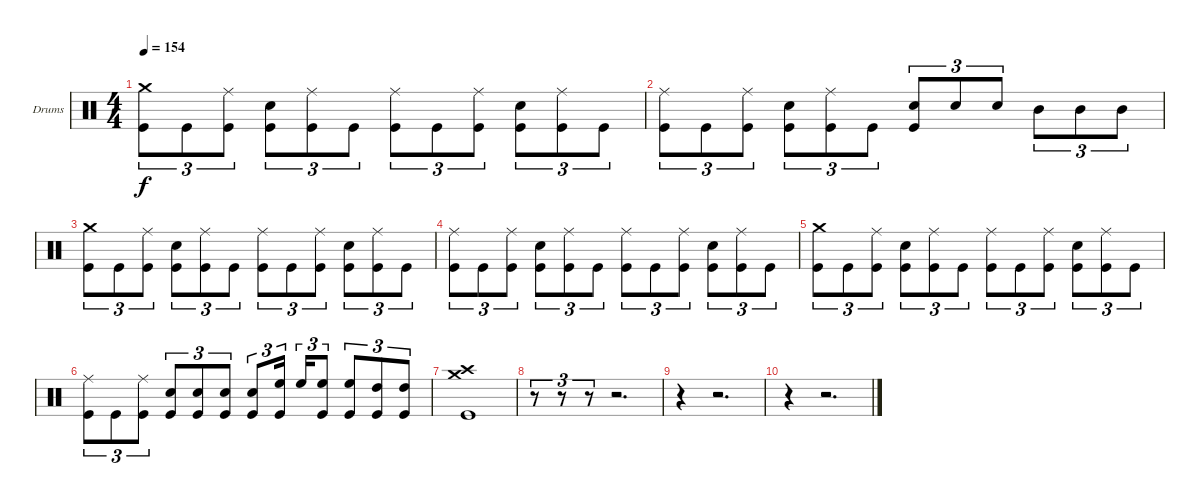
\bracketExtendMode groupsimilarinstruments
\firstSystemTrackNameOrientation horizontal
\otherSystemsTrackNameOrientation horizontal
\track ("Drumkit" "Drums") {instrument percussion}
\staff {score}
\articulation defaults
\ts (4 4)
\tempo 154
\clef neutral
\ks c
("Crash medium (hit)" "Kick (hit)").8{tu (3 2) dy f} "Kick (hit)".8{tu (3 2)} ("Ride (middle)" "Kick (hit)").8{tu (3 2)} ("Snare (hit) 2" "Kick (hit)").8{tu (3 2)} ("Ride (middle)" "Kick (hit)").8{tu (3 2)} "Kick (hit)".8{tu (3 2)} ("Ride (middle)" "Kick (hit)").8{tu (3 2)} "Kick (hit)".8{tu (3 2)} ("Ride (middle)" "Kick (hit)").8{tu (3 2)} ("Snare (hit) 2" "Kick (hit)").8{tu (3 2)} ("Ride (middle)" "Kick (hit)").8{tu (3 2)} "Kick (hit)".8{tu (3 2)} |
("Ride (middle)" "Kick (hit)").8{tu (3 2)} "Kick (hit)".8{tu (3 2)} ("Ride (middle)" "Kick (hit)").8{tu (3 2)} ("Snare (hit) 2" "Kick (hit)").8{tu (3 2)} ("Ride (middle)" "Kick (hit)").8{tu (3 2)} "Kick (hit)".8{tu (3 2)} ("Snare (hit) 2" "Kick (hit)").8{tu (3 2)} "Snare (hit) 2".8{tu (3 2)} "Snare (hit) 2".8{tu (3 2)} "Mid Tom (hit)".8{tu (3 2)} "Mid Tom (hit)".8{tu (3 2)} "Mid Tom (hit)".8{tu (3 2)} |
("Crash medium (hit)" "Kick (hit)").8{tu (3 2)} "Kick (hit)".8{tu (3 2)} ("Ride (middle)" "Kick (hit)").8{tu (3 2)} ("Snare (hit) 2" "Kick (hit)").8{tu (3 2)} ("Ride (middle)" "Kick (hit)").8{tu (3 2)} "Kick (hit)".8{tu (3 2)} ("Ride (middle)" "Kick (hit)").8{tu (3 2)} "Kick (hit)".8{tu (3 2)} ("Ride (middle)" "Kick (hit)").8{tu (3 2)} ("Snare (hit) 2" "Kick (hit)").8{tu (3 2)} ("Ride (middle)" "Kick (hit)").8{tu (3 2)} "Kick (hit)".8{tu (3 2)} |
("Ride (middle)" "Kick (hit)").8{tu (3 2)} "Kick (hit)".8{tu (3 2)} ("Ride (middle)" "Kick (hit)").8{tu (3 2)} ("Snare (hit) 2" "Kick (hit)").8{tu (3 2)} ("Ride (middle)" "Kick (hit)").8{tu (3 2)} "Kick (hit)".8{tu (3 2)} ("Ride (middle)" "Kick (hit)").8{tu (3 2)} "Kick (hit)".8{tu (3 2)} ("Ride (middle)" "Kick (hit)").8{tu (3 2)} ("Snare (hit) 2" "Kick (hit)").8{tu (3 2)} ("Ride (middle)" "Kick (hit)").8{tu (3 2)} "Kick (hit)".8{tu (3 2)} |
("Crash medium (hit)" "Kick (hit)").8{tu (3 2)} "Kick (hit)".8{tu (3 2)} ("Ride (middle)" "Kick (hit)").8{tu (3 2)} ("Snare (hit) 2" "Kick (hit)").8{tu (3 2)} ("Ride (middle)" "Kick (hit)").8{tu (3 2)} "Kick (hit)".8{tu (3 2)} ("Ride (middle)" "Kick (hit)").8{tu (3 2)} "Kick (hit)".8{tu (3 2)} ("Ride (middle)" "Kick (hit)").8{tu (3 2)} ("Snare (hit) 2" "Kick (hit)").8{tu (3 2)} ("Ride (middle)" "Kick (hit)").8{tu (3 2)} "Kick (hit)".8{tu (3 2)} |
("Ride (middle)" "Kick (hit)").8{tu (3 2)} "Kick (hit)".8{tu (3 2)} ("Ride (middle)" "Kick (hit)").8{tu (3 2)} ("Snare (hit) 2" "Kick (hit)").8{tu (3 2)} ("Snare (hit) 2" "Kick (hit)").8{tu (3 2)} ("Snare (hit) 2" "Kick (hit)").8{tu (3 2)} ("Snare (hit) 2" "Kick (hit)").8{tu (3 2)} ("High Floor Tom (hit)" "Kick (hit)").16{tu (3 2)} "High Floor Tom (hit)".16{tu (3 2)} ("High Floor Tom (hit)" "Kick (hit)").8{tu (3 2)} ("High Floor Tom (hit)" "Kick (hit)").8{tu (3 2)} ("High Tom (hit)" "Kick (hit)").8{tu (3 2)} ("High Tom (hit)" "Kick (hit)").8{tu (3 2)} |
("Crash medium (hit)" "Crash high (hit)" "Kick (hit)").1 |
r.8{tu (3 2)} r.8{tu (3 2)} r.8{tu (3 2)} r.2{d} |
r.4 r.2{d} |
r.4 r.2{d}
